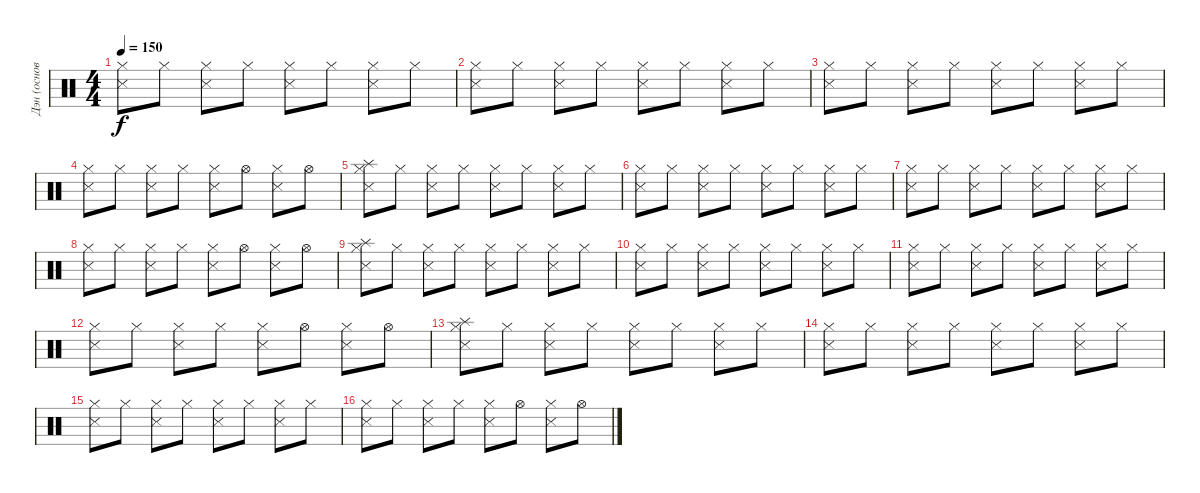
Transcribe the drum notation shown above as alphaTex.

\track ("Дэн (основа)" "Дэн (основ") {instrument percussion}
\staff {score}
\articulation defaults
\ts (4 4)
\tempo 150
\clef neutral
\ks c
("Hi-Hat (closed)" "Snare (side stick) 3").8{dy f} "Hi-Hat (closed)".8 ("Hi-Hat (closed)" "Snare (side stick) 3").8 "Hi-Hat (closed)".8 ("Hi-Hat (closed)" "Snare (side stick) 3").8 "Hi-Hat (closed)".8 ("Hi-Hat (closed)" "Snare (side stick) 3").8 "Hi-Hat (closed)".8 |
("Hi-Hat (closed)" "Snare (side stick) 3").8 "Hi-Hat (closed)".8 ("Hi-Hat (closed)" "Snare (side stick) 3").8 "Hi-Hat (closed)".8 ("Hi-Hat (closed)" "Snare (side stick) 3").8 "Hi-Hat (closed)".8 ("Hi-Hat (closed)" "Snare (side stick) 3").8 "Hi-Hat (closed)".8 |
("Hi-Hat (closed)" "Snare (side stick) 3").8 "Hi-Hat (closed)".8 ("Hi-Hat (closed)" "Snare (side stick) 3").8 "Hi-Hat (closed)".8 ("Hi-Hat (closed)" "Snare (side stick) 3").8 "Hi-Hat (closed)".8 ("Hi-Hat (closed)" "Snare (side stick) 3").8 "Hi-Hat (closed)".8 |
("Hi-Hat (closed)" "Snare (side stick) 3").8 "Hi-Hat (closed)".8 ("Hi-Hat (closed)" "Snare (side stick) 3").8 "Hi-Hat (closed)".8 ("Hi-Hat (closed)" "Snare (side stick) 3").8 "Hi-Hat (open)".8 ("Hi-Hat (closed)" "Snare (side stick) 3").8 "Hi-Hat (open)".8 |
("Hi-Hat (closed)" "Snare (side stick) 3" "Splash (hit)").8 "Hi-Hat (closed)".8 ("Hi-Hat (closed)" "Snare (side stick) 3").8 "Hi-Hat (closed)".8 ("Hi-Hat (closed)" "Snare (side stick) 3").8 "Hi-Hat (closed)".8 ("Hi-Hat (closed)" "Snare (side stick) 3").8 "Hi-Hat (closed)".8 |
("Hi-Hat (closed)" "Snare (side stick) 3").8 "Hi-Hat (closed)".8 ("Hi-Hat (closed)" "Snare (side stick) 3").8 "Hi-Hat (closed)".8 ("Hi-Hat (closed)" "Snare (side stick) 3").8 "Hi-Hat (closed)".8 ("Hi-Hat (closed)" "Snare (side stick) 3").8 "Hi-Hat (closed)".8 |
("Hi-Hat (closed)" "Snare (side stick) 3").8 "Hi-Hat (closed)".8 ("Hi-Hat (closed)" "Snare (side stick) 3").8 "Hi-Hat (closed)".8 ("Hi-Hat (closed)" "Snare (side stick) 3").8 "Hi-Hat (closed)".8 ("Hi-Hat (closed)" "Snare (side stick) 3").8 "Hi-Hat (closed)".8 |
("Hi-Hat (closed)" "Snare (side stick) 3").8 "Hi-Hat (closed)".8 ("Hi-Hat (closed)" "Snare (side stick) 3").8 "Hi-Hat (closed)".8 ("Hi-Hat (closed)" "Snare (side stick) 3").8 "Hi-Hat (open)".8 ("Hi-Hat (closed)" "Snare (side stick) 3").8 "Hi-Hat (open)".8 |
("Hi-Hat (closed)" "Snare (side stick) 3" "Splash (hit)").8 "Hi-Hat (closed)".8 ("Hi-Hat (closed)" "Snare (side stick) 3").8 "Hi-Hat (closed)".8 ("Hi-Hat (closed)" "Snare (side stick) 3").8 "Hi-Hat (closed)".8 ("Hi-Hat (closed)" "Snare (side stick) 3").8 "Hi-Hat (closed)".8 |
("Hi-Hat (closed)" "Snare (side stick) 3").8 "Hi-Hat (closed)".8 ("Hi-Hat (closed)" "Snare (side stick) 3").8 "Hi-Hat (closed)".8 ("Hi-Hat (closed)" "Snare (side stick) 3").8 "Hi-Hat (closed)".8 ("Hi-Hat (closed)" "Snare (side stick) 3").8 "Hi-Hat (closed)".8 |
("Hi-Hat (closed)" "Snare (side stick) 3").8 "Hi-Hat (closed)".8 ("Hi-Hat (closed)" "Snare (side stick) 3").8 "Hi-Hat (closed)".8 ("Hi-Hat (closed)" "Snare (side stick) 3").8 "Hi-Hat (closed)".8 ("Hi-Hat (closed)" "Snare (side stick) 3").8 "Hi-Hat (closed)".8 |
("Hi-Hat (closed)" "Snare (side stick) 3").8 "Hi-Hat (closed)".8 ("Hi-Hat (closed)" "Snare (side stick) 3").8 "Hi-Hat (closed)".8 ("Hi-Hat (closed)" "Snare (side stick) 3").8 "Hi-Hat (open)".8 ("Hi-Hat (closed)" "Snare (side stick) 3").8 "Hi-Hat (open)".8 |
("Hi-Hat (closed)" "Snare (side stick) 3" "Splash (hit)").8 "Hi-Hat (closed)".8 ("Hi-Hat (closed)" "Snare (side stick) 3").8 "Hi-Hat (closed)".8 ("Hi-Hat (closed)" "Snare (side stick) 3").8 "Hi-Hat (closed)".8 ("Hi-Hat (closed)" "Snare (side stick) 3").8 "Hi-Hat (closed)".8 |
("Hi-Hat (closed)" "Snare (side stick) 3").8 "Hi-Hat (closed)".8 ("Hi-Hat (closed)" "Snare (side stick) 3").8 "Hi-Hat (closed)".8 ("Hi-Hat (closed)" "Snare (side stick) 3").8 "Hi-Hat (closed)".8 ("Hi-Hat (closed)" "Snare (side stick) 3").8 "Hi-Hat (closed)".8 |
("Hi-Hat (closed)" "Snare (side stick) 3").8 "Hi-Hat (closed)".8 ("Hi-Hat (closed)" "Snare (side stick) 3").8 "Hi-Hat (closed)".8 ("Hi-Hat (closed)" "Snare (side stick) 3").8 "Hi-Hat (closed)".8 ("Hi-Hat (closed)" "Snare (side stick) 3").8 "Hi-Hat (closed)".8 |
("Hi-Hat (closed)" "Snare (side stick) 3").8 "Hi-Hat (closed)".8 ("Hi-Hat (closed)" "Snare (side stick) 3").8 "Hi-Hat (closed)".8 ("Hi-Hat (closed)" "Snare (side stick) 3").8 "Hi-Hat (open)".8 ("Hi-Hat (closed)" "Snare (side stick) 3").8 "Hi-Hat (open)".8
